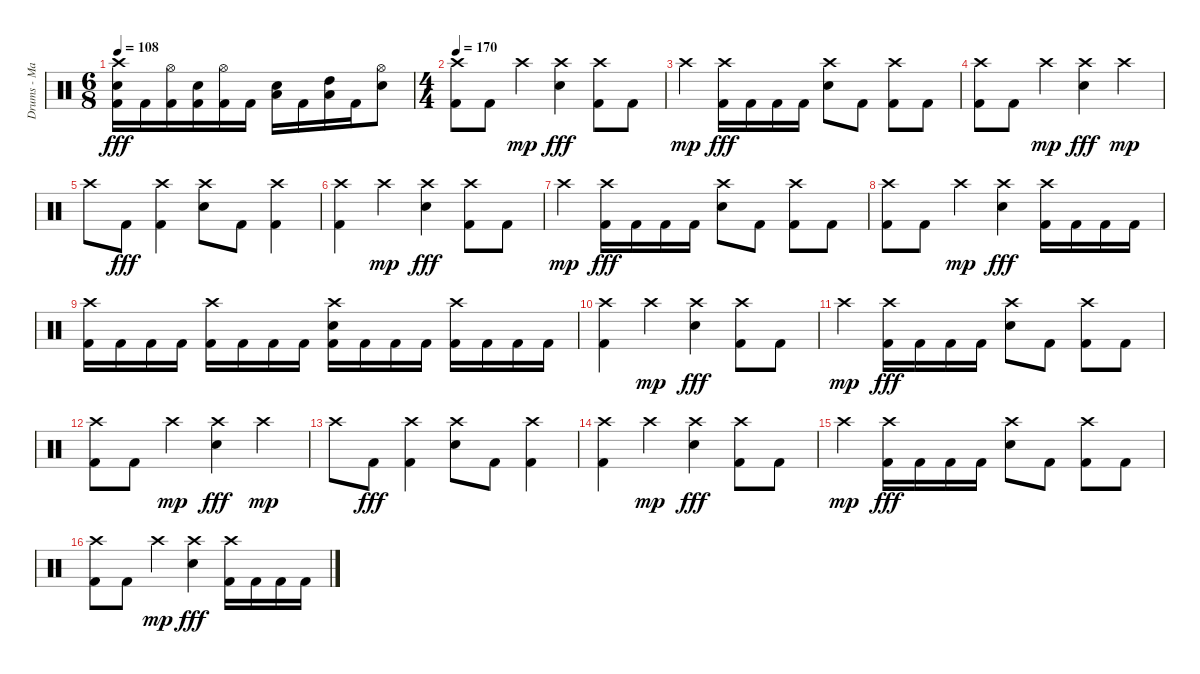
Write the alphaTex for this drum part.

\track ("Drums - Matt Traynor" "Drums - Ma") {instrument percussion}
\staff {score}
\articulation defaults
\ts (6 8)
\tempo 108
\clef neutral
\ks c
("Crash high (hit)" "Snare (hit) 2" "Kick (hit) 2").16{dy fff} "Kick (hit) 2".16 ("Hi-Hat (open)" "Kick (hit) 2").16 ("Snare (hit) 2" "Kick (hit) 2").16 ("Hi-Hat (open)" "Kick (hit) 2").16 "Kick (hit) 2".16 ("Snare (hit) 2" "Low Tom (hit)").16 "Kick (hit) 2".16 ("High Tom (hit)" "Low Tom (hit)").16 "Kick (hit) 2".16 ("Hi-Hat (open)" "Snare (hit) 2").8 |
\ts (4 4)
\tempo 180
\tempo 170
("Crash high (hit)" "Kick (hit) 2").8 "Kick (hit) 2".8 "Crash high (hit)".4{dy mp} ("Crash high (hit)" "Snare (hit) 2").4{dy fff} ("Crash high (hit)" "Kick (hit) 2").8 "Kick (hit) 2".8 |
"Crash high (hit)".4{dy mp} ("Crash high (hit)" "Kick (hit) 2").16{dy fff} "Kick (hit) 2".16 "Kick (hit) 2".16 "Kick (hit) 2".16 ("Crash high (hit)" "Snare (hit) 2").8 "Kick (hit) 2".8 ("Crash high (hit)" "Kick (hit) 2").8 "Kick (hit) 2".8 |
("Crash high (hit)" "Kick (hit) 2").8 "Kick (hit) 2".8 "Crash high (hit)".4{dy mp} ("Crash high (hit)" "Snare (hit) 2").4{dy fff} "Crash high (hit)".4{dy mp} |
"Crash high (hit)".8 "Kick (hit) 2".8{dy fff} ("Crash high (hit)" "Kick (hit) 2").4 ("Crash high (hit)" "Snare (hit) 2").8 "Kick (hit) 2".8 ("Crash high (hit)" "Kick (hit) 2").4 |
("Crash high (hit)" "Kick (hit) 2").4 "Crash high (hit)".4{dy mp} ("Crash high (hit)" "Snare (hit) 2").4{dy fff} ("Crash high (hit)" "Kick (hit) 2").8 "Kick (hit) 2".8 |
"Crash high (hit)".4{dy mp} ("Crash high (hit)" "Kick (hit) 2").16{dy fff} "Kick (hit) 2".16 "Kick (hit) 2".16 "Kick (hit) 2".16 ("Crash high (hit)" "Snare (hit) 2").8 "Kick (hit) 2".8 ("Crash high (hit)" "Kick (hit) 2").8 "Kick (hit) 2".8 |
("Crash high (hit)" "Kick (hit) 2").8 "Kick (hit) 2".8 "Crash high (hit)".4{dy mp} ("Crash high (hit)" "Snare (hit) 2").4{dy fff} ("Crash high (hit)" "Kick (hit) 2").16 "Kick (hit) 2".16 "Kick (hit) 2".16 "Kick (hit) 2".16 |
("Crash high (hit)" "Kick (hit) 2").16 "Kick (hit) 2".16 "Kick (hit) 2".16 "Kick (hit) 2".16 ("Crash high (hit)" "Kick (hit) 2").16 "Kick (hit) 2".16 "Kick (hit) 2".16 "Kick (hit) 2".16 ("Crash high (hit)" "Snare (hit) 2" "Kick (hit) 2").16 "Kick (hit) 2".16 "Kick (hit) 2".16 "Kick (hit) 2".16 ("Crash high (hit)" "Kick (hit) 2").16 "Kick (hit) 2".16 "Kick (hit) 2".16 "Kick (hit) 2".16 |
("Crash high (hit)" "Kick (hit) 2").4 "Crash high (hit)".4{dy mp} ("Crash high (hit)" "Snare (hit) 2").4{dy fff} ("Crash high (hit)" "Kick (hit) 2").8 "Kick (hit) 2".8 |
"Crash high (hit)".4{dy mp} ("Crash high (hit)" "Kick (hit) 2").16{dy fff} "Kick (hit) 2".16 "Kick (hit) 2".16 "Kick (hit) 2".16 ("Crash high (hit)" "Snare (hit) 2").8 "Kick (hit) 2".8 ("Crash high (hit)" "Kick (hit) 2").8 "Kick (hit) 2".8 |
("Crash high (hit)" "Kick (hit) 2").8 "Kick (hit) 2".8 "Crash high (hit)".4{dy mp} ("Crash high (hit)" "Snare (hit) 2").4{dy fff} "Crash high (hit)".4{dy mp} |
"Crash high (hit)".8 "Kick (hit) 2".8{dy fff} ("Crash high (hit)" "Kick (hit) 2").4 ("Crash high (hit)" "Snare (hit) 2").8 "Kick (hit) 2".8 ("Crash high (hit)" "Kick (hit) 2").4 |
("Crash high (hit)" "Kick (hit) 2").4 "Crash high (hit)".4{dy mp} ("Crash high (hit)" "Snare (hit) 2").4{dy fff} ("Crash high (hit)" "Kick (hit) 2").8 "Kick (hit) 2".8 |
"Crash high (hit)".4{dy mp} ("Crash high (hit)" "Kick (hit) 2").16{dy fff} "Kick (hit) 2".16 "Kick (hit) 2".16 "Kick (hit) 2".16 ("Crash high (hit)" "Snare (hit) 2").8 "Kick (hit) 2".8 ("Crash high (hit)" "Kick (hit) 2").8 "Kick (hit) 2".8 |
("Crash high (hit)" "Kick (hit) 2").8 "Kick (hit) 2".8 "Crash high (hit)".4{dy mp} ("Crash high (hit)" "Snare (hit) 2").4{dy fff} ("Crash high (hit)" "Kick (hit) 2").16 "Kick (hit) 2".16 "Kick (hit) 2".16 "Kick (hit) 2".16
